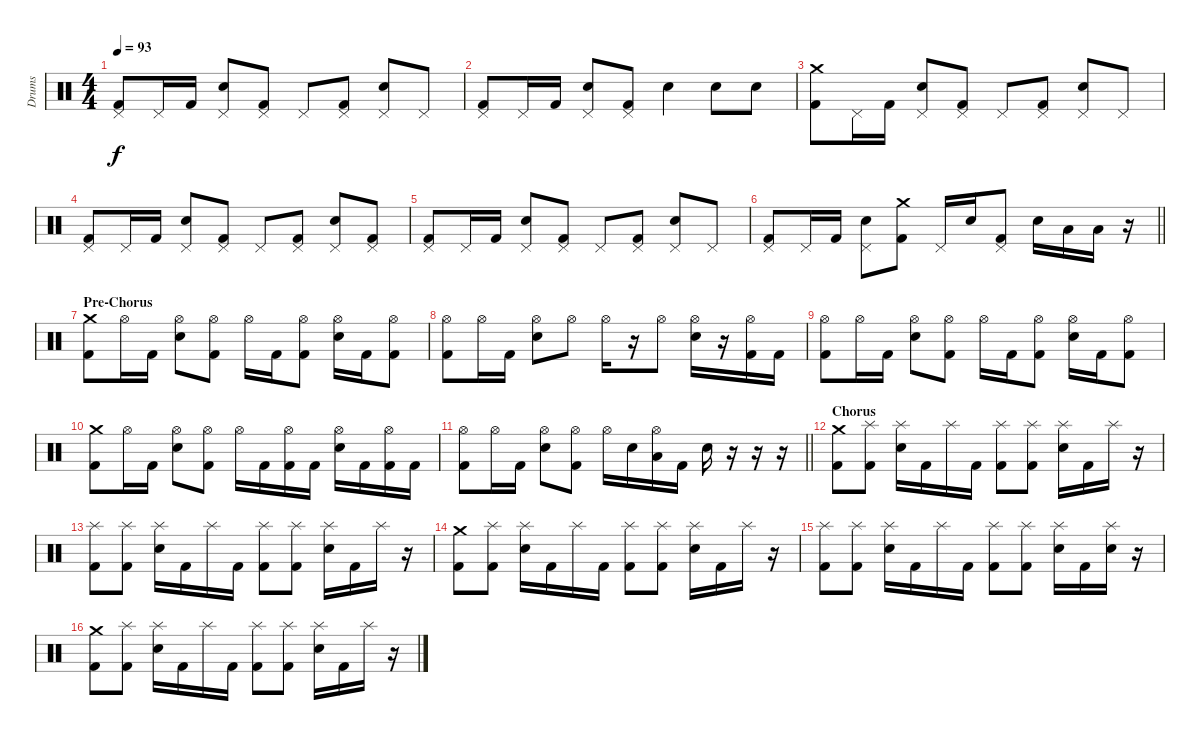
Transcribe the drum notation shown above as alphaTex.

\track ("Drums" "Drums") {instrument percussion}
\staff {score}
\articulation defaults
\ts (4 4)
\tempo 93
\clef neutral
\ks c
("Pedal Hi-Hat (hit)" "Kick (hit) 2").8{dy f} "Pedal Hi-Hat (hit)".16 "Kick (hit) 2".16 ("Pedal Hi-Hat (hit)" "Snare (hit) 2").8 ("Pedal Hi-Hat (hit)" "Kick (hit) 2").8 "Pedal Hi-Hat (hit)".8 ("Pedal Hi-Hat (hit)" "Kick (hit) 2").8 ("Pedal Hi-Hat (hit)" "Snare (hit) 2").8 "Pedal Hi-Hat (hit)".8 |
("Pedal Hi-Hat (hit)" "Kick (hit) 2").8 "Pedal Hi-Hat (hit)".16 "Kick (hit) 2".16 ("Pedal Hi-Hat (hit)" "Snare (hit) 2").8 ("Pedal Hi-Hat (hit)" "Kick (hit) 2").8 "Snare (hit) 2".4 "Snare (hit) 2".8 "Snare (hit) 2".8 |
("Crash medium (hit)" "Kick (hit) 2").8 "Pedal Hi-Hat (hit)".16 "Kick (hit) 2".16 ("Pedal Hi-Hat (hit)" "Snare (hit) 2").8 ("Pedal Hi-Hat (hit)" "Kick (hit) 2").8 "Pedal Hi-Hat (hit)".8 ("Pedal Hi-Hat (hit)" "Kick (hit) 2").8 ("Pedal Hi-Hat (hit)" "Snare (hit) 2").8 "Pedal Hi-Hat (hit)".8 |
("Pedal Hi-Hat (hit)" "Kick (hit) 2").8 "Pedal Hi-Hat (hit)".16 "Kick (hit) 2".16 ("Pedal Hi-Hat (hit)" "Snare (hit) 2").8 ("Pedal Hi-Hat (hit)" "Kick (hit) 2").8 "Pedal Hi-Hat (hit)".8 ("Pedal Hi-Hat (hit)" "Kick (hit) 2").8 ("Pedal Hi-Hat (hit)" "Snare (hit) 2").8 ("Pedal Hi-Hat (hit)" "Kick (hit) 2").8 |
("Pedal Hi-Hat (hit)" "Kick (hit) 2").8 "Pedal Hi-Hat (hit)".16 "Kick (hit) 2".16 ("Pedal Hi-Hat (hit)" "Snare (hit) 2").8 ("Pedal Hi-Hat (hit)" "Kick (hit) 2").8 "Pedal Hi-Hat (hit)".8 ("Pedal Hi-Hat (hit)" "Kick (hit) 2").8 ("Pedal Hi-Hat (hit)" "Snare (hit) 2").8 "Pedal Hi-Hat (hit)".8 |
\barLineRight lightlight
("Pedal Hi-Hat (hit)" "Kick (hit) 2").8 "Pedal Hi-Hat (hit)".16 "Kick (hit) 2".16 ("Pedal Hi-Hat (hit)" "Snare (hit) 2").8 ("Crash medium (hit)" "Kick (hit) 2").8 "Pedal Hi-Hat (hit)".16 "Snare (hit) 2".16 ("Pedal Hi-Hat (hit)" "Kick (hit) 2").8 "Snare (hit) 2".16 "Low Tom (hit)".16 "Low Tom (hit)".16 r.16 |
\section ("" "Pre-Chorus")
("Crash medium (hit)" "Kick (hit) 2").8 "Hi-Hat (open)".16 "Kick (hit) 2".16 ("Hi-Hat (open)" "Snare (hit) 2").8 ("Hi-Hat (open)" "Kick (hit) 2").8 "Hi-Hat (open)".16 "Kick (hit) 2".16 ("Hi-Hat (open)" "Kick (hit) 2").8 ("Hi-Hat (open)" "Snare (hit) 2").16 "Kick (hit) 2".16 ("Hi-Hat (open)" "Kick (hit) 2").8 |
("Hi-Hat (open)" "Kick (hit) 2").8 "Hi-Hat (open)".16 "Kick (hit) 2".16 ("Hi-Hat (open)" "Snare (hit) 2").8 "Hi-Hat (open)".8 "Hi-Hat (open)".16 r.16 "Hi-Hat (open)".8 ("Hi-Hat (open)" "Snare (hit) 2").16 r.16 ("Hi-Hat (open)" "Kick (hit) 2").16 "Kick (hit) 2".16 |
("Hi-Hat (open)" "Kick (hit) 2").8 "Hi-Hat (open)".16 "Kick (hit) 2".16 ("Hi-Hat (open)" "Snare (hit) 2").8 ("Hi-Hat (open)" "Kick (hit) 2").8 "Hi-Hat (open)".16 "Kick (hit) 2".16 ("Hi-Hat (open)" "Kick (hit) 2").8 ("Hi-Hat (open)" "Snare (hit) 2").16 "Kick (hit) 2".16 ("Hi-Hat (open)" "Kick (hit) 2").8 |
("Crash medium (hit)" "Kick (hit) 2").8 "Hi-Hat (open)".16 "Kick (hit) 2".16 ("Hi-Hat (open)" "Snare (hit) 2").8 ("Hi-Hat (open)" "Kick (hit) 2").8 "Hi-Hat (open)".16 "Kick (hit) 2".16 ("Hi-Hat (open)" "Kick (hit) 2").16 "Kick (hit) 2".16 ("Hi-Hat (open)" "Snare (hit) 2").16 "Kick (hit) 2".16 ("Hi-Hat (open)" "Kick (hit) 2").16 "Kick (hit) 2".16 |
\barLineRight lightlight
("Hi-Hat (open)" "Kick (hit) 2").8 "Hi-Hat (open)".16 "Kick (hit) 2".16 ("Hi-Hat (open)" "Snare (hit) 2").8 ("Hi-Hat (open)" "Kick (hit) 2").8 "Hi-Hat (open)".16 "Snare (hit) 2".16 ("Hi-Hat (open)" "Low Tom (hit)").16 "Kick (hit) 2".16 "Snare (hit) 2".16 r.16 r.16 r.16 |
\section ("" "Chorus")
("Crash medium (hit)" "Kick (hit) 2").8 ("Splash (hit)" "Kick (hit) 2").8 ("Splash (hit)" "Snare (hit) 2").16 "Kick (hit) 2".16 "Splash (hit)".16 "Kick (hit) 2".16 ("Splash (hit)" "Kick (hit) 2").8 ("Splash (hit)" "Kick (hit) 2").8 ("Splash (hit)" "Snare (hit) 2").16 "Kick (hit) 2".16 "Splash (hit)".16 r.16 |
("Splash (hit)" "Kick (hit) 2").8 ("Splash (hit)" "Kick (hit) 2").8 ("Splash (hit)" "Snare (hit) 2").16 "Kick (hit) 2".16 "Splash (hit)".16 "Kick (hit) 2".16 ("Splash (hit)" "Kick (hit) 2").8 ("Splash (hit)" "Kick (hit) 2").8 ("Splash (hit)" "Snare (hit) 2").16 "Kick (hit) 2".16 "Splash (hit)".16 r.16 |
("Crash medium (hit)" "Kick (hit) 2").8 ("Splash (hit)" "Kick (hit) 2").8 ("Splash (hit)" "Snare (hit) 2").16 "Kick (hit) 2".16 "Splash (hit)".16 "Kick (hit) 2".16 ("Splash (hit)" "Kick (hit) 2").8 ("Splash (hit)" "Kick (hit) 2").8 ("Splash (hit)" "Snare (hit) 2").16 "Kick (hit) 2".16 "Splash (hit)".16 r.16 |
("Splash (hit)" "Kick (hit) 2").8 ("Splash (hit)" "Kick (hit) 2").8 ("Splash (hit)" "Snare (hit) 2").16 "Kick (hit) 2".16 "Splash (hit)".16 "Kick (hit) 2".16 ("Splash (hit)" "Kick (hit) 2").8 ("Splash (hit)" "Kick (hit) 2").8 ("Splash (hit)" "Snare (hit) 2").16 "Kick (hit) 2".16 ("Splash (hit)" "Snare (hit) 2").16 r.16 |
("Crash medium (hit)" "Kick (hit) 2").8 ("Splash (hit)" "Kick (hit) 2").8 ("Splash (hit)" "Snare (hit) 2").16 "Kick (hit) 2".16 "Splash (hit)".16 "Kick (hit) 2".16 ("Splash (hit)" "Kick (hit) 2").8 ("Splash (hit)" "Kick (hit) 2").8 ("Splash (hit)" "Snare (hit) 2").16 "Kick (hit) 2".16 "Splash (hit)".16 r.16
